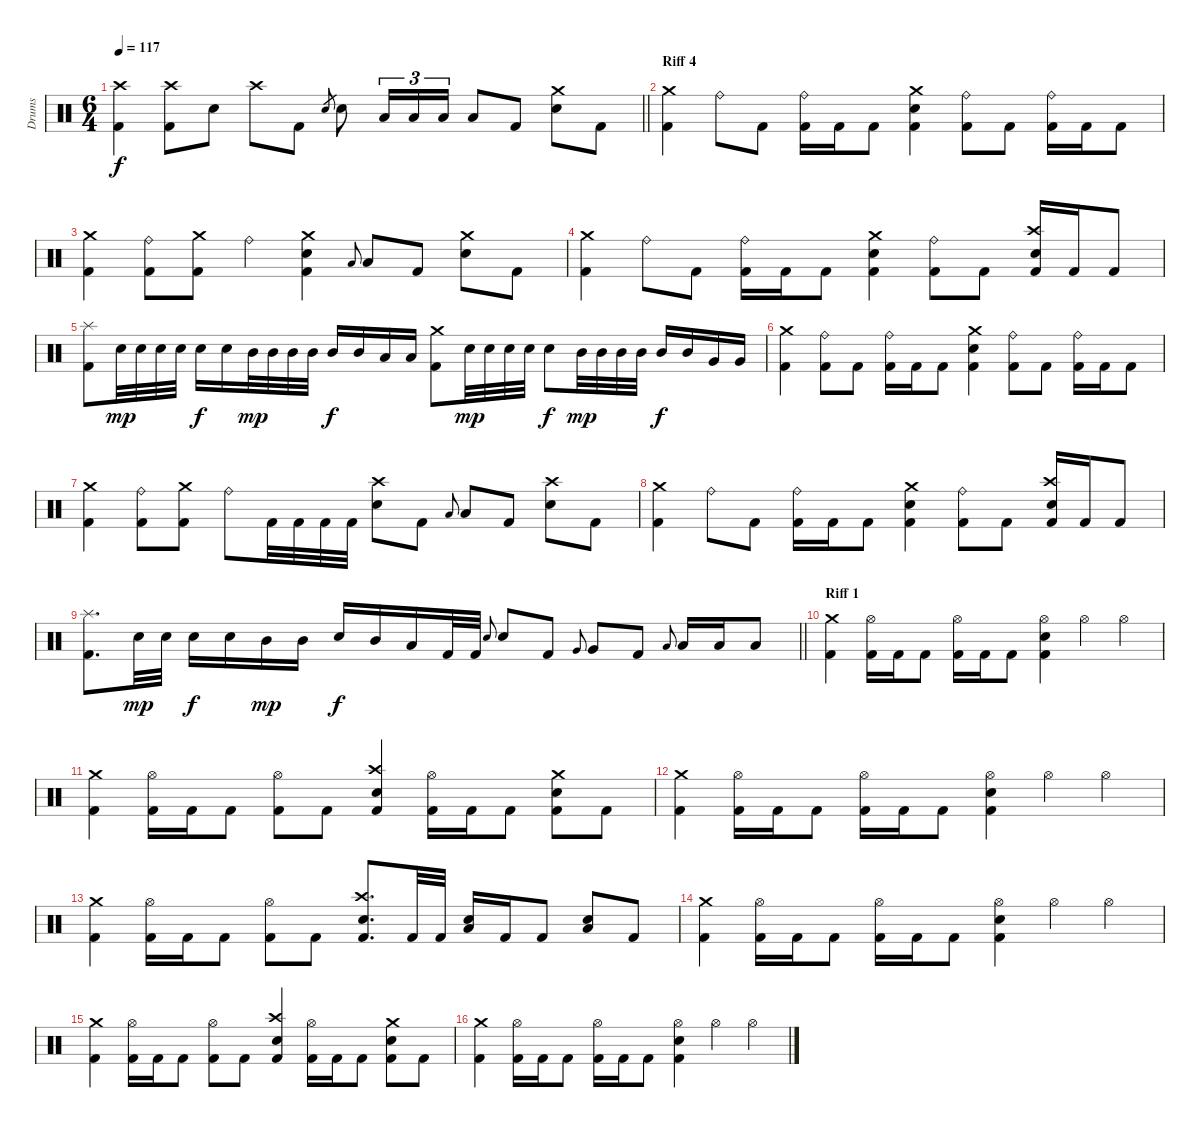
\track ("Drums" "Drums") {instrument percussion}
\staff {score}
\articulation defaults
\ts (6 4)
\tempo 117
\clef neutral
\barLineRight lightlight
\ks c
("Kick (hit) 2" "Crash high (hit)").4{dy f} ("Kick (hit) 2" "Crash high (hit)").8 "Electric Snare (hit)".8 "Crash high (hit)".8 "Kick (hit) 2".8 "Electric Snare (hit)".8{gr} "Electric Snare (hit)".8 "Low Tom (hit)".16{tu (3 2)} "Low Tom (hit)".16{tu (3 2)} "Low Floor Tom (hit)".16{tu (3 2)} "Low Floor Tom (hit)".8 "Kick (hit) 2".8 ("Crash medium (hit)" "Electric Snare (hit)").8 "Kick (hit) 2".8 |
\section ("" "Riff 4")
("Crash medium (hit)" "Kick (hit) 2").4 "Ride (bell)".8 "Kick (hit) 2".8 ("Kick (hit) 2" "Ride (bell)").16 "Kick (hit) 2".16 "Kick (hit) 2".8 ("Electric Snare (hit)" "Crash medium (hit)" "Kick (hit) 2").4 ("Ride (bell)" "Kick (hit) 2").8 "Kick (hit) 2".8 ("Ride (bell)" "Kick (hit) 2").16 "Kick (hit) 2".16 "Kick (hit) 2".8 |
("Kick (hit) 2" "Crash medium (hit)").4 ("Ride (bell)" "Kick (hit) 2").8 ("Crash medium (hit)" "Kick (hit) 2").8 "Ride (bell)".4 ("Kick (hit) 2" "Electric Snare (hit)" "Crash medium (hit)").4 "Low Tom (hit)".8{gr onbeat} "Low Tom (hit)".8 "Kick (hit) 2".8 ("Crash medium (hit)" "Electric Snare (hit)").8 "Kick (hit) 2".8 |
("Crash medium (hit)" "Kick (hit) 2").4 "Ride (bell)".8 "Kick (hit) 2".8 ("Kick (hit) 2" "Ride (bell)").16 "Kick (hit) 2".16 "Kick (hit) 2".8 ("Electric Snare (hit)" "Crash medium (hit)" "Kick (hit) 2").4 ("Ride (bell)" "Kick (hit) 2").8 "Kick (hit) 2".8 ("Crash high (hit)" "Electric Snare (hit)" "Kick (hit) 2").16 "Kick (hit) 2".16 "Kick (hit) 2".8 |
("Splash (hit)" "Kick (hit) 2").8 "Electric Snare (hit)".32{dy mp} "Electric Snare (hit)".32 "Electric Snare (hit)".32 "Electric Snare (hit)".32 "Electric Snare (hit)".16{dy f} "Electric Snare (hit)".16 "Mid Tom (hit)".32{dy mp} "Mid Tom (hit)".32 "Mid Tom (hit)".32 "Mid Tom (hit)".32 "Mid Tom (hit)".16{dy f} "Mid Tom (hit)".16 "Low Tom (hit)".16 "Low Tom (hit)".16 ("Crash medium (hit)" "Kick (hit) 2").8 "Electric Snare (hit)".32{dy mp} "Electric Snare (hit)".32 "Electric Snare (hit)".32 "Electric Snare (hit)".32 "Electric Snare (hit)".8{dy f} "Mid Tom (hit)".32{dy mp} "Mid Tom (hit)".32 "Mid Tom (hit)".32 "Mid Tom (hit)".32 "Mid Tom (hit)".16{dy f} "Mid Tom (hit)".16 "Very Low Tom (hit)".16 "Very Low Tom (hit)".16 |
("Crash medium (hit)" "Kick (hit) 2").4 ("Ride (bell)" "Kick (hit) 2").8 "Kick (hit) 2".8 ("Kick (hit) 2" "Ride (bell)").16 "Kick (hit) 2".16 "Kick (hit) 2".8 ("Electric Snare (hit)" "Crash medium (hit)" "Kick (hit) 2").4 ("Ride (bell)" "Kick (hit) 2").8 "Kick (hit) 2".8 ("Ride (bell)" "Kick (hit) 2").16 "Kick (hit) 2".16 "Kick (hit) 2".8 |
("Kick (hit) 2" "Crash medium (hit)").4 ("Ride (bell)" "Kick (hit) 2").8 ("Crash medium (hit)" "Kick (hit) 2").8 "Ride (bell)".8 "Kick (hit) 2".32 "Kick (hit) 2".32 "Kick (hit) 2".32 "Kick (hit) 2".32 ("Electric Snare (hit)" "Crash high (hit)").8 "Kick (hit) 2".8 "Low Tom (hit)".8{gr onbeat} "Low Tom (hit)".8 "Kick (hit) 2".8 ("Crash high (hit)" "Electric Snare (hit)").8 "Kick (hit) 2".8 |
("Crash medium (hit)" "Kick (hit) 2").4 "Ride (bell)".8 "Kick (hit) 2".8 ("Kick (hit) 2" "Ride (bell)").16 "Kick (hit) 2".16 "Kick (hit) 2".8 ("Electric Snare (hit)" "Crash medium (hit)" "Kick (hit) 2").4 ("Ride (bell)" "Kick (hit) 2").8 "Kick (hit) 2".8 ("Crash high (hit)" "Electric Snare (hit)" "Kick (hit) 2").16 "Kick (hit) 2".16 "Kick (hit) 2".8 |
\barLineRight lightlight
("Splash (hit)" "Kick (hit) 2").8{d} "Electric Snare (hit)".32{dy mp} "Electric Snare (hit)".32 "Electric Snare (hit)".16{dy f} "Electric Snare (hit)".16 "Mid Tom (hit)".16{dy mp} "Mid Tom (hit)".16 "Electric Snare (hit)".16{dy f} "Mid Tom (hit)".16 "Low Floor Tom (hit)".16 "Kick (hit) 2".32 "Kick (hit) 2".32 "Electric Snare (hit)".8{gr onbeat} "Electric Snare (hit)".8 "Kick (hit) 2".8 "Very Low Tom (hit)".8{gr onbeat} "Very Low Tom (hit)".8 "Kick (hit) 2".8 "Low Floor Tom (hit)".8{gr onbeat} "Low Floor Tom (hit)".16 "Low Floor Tom (hit)".16 "Low Floor Tom (hit)".8 |
\section ("" "Riff 1")
("Crash medium (hit)" "Kick (hit) 2").4 ("Hi-Hat (open)" "Kick (hit) 2").16 "Kick (hit) 2".16 "Kick (hit) 2".8 ("Hi-Hat (open)" "Kick (hit) 2").16 "Kick (hit) 2".16 "Kick (hit) 2".8 ("Electric Snare (hit)" "Hi-Hat (open)" "Kick (hit) 2").4 "Hi-Hat (open)".4 "Hi-Hat (open)".4 |
("Crash medium (hit)" "Kick (hit) 2").4 ("Hi-Hat (open)" "Kick (hit) 2").16 "Kick (hit) 2".16 "Kick (hit) 2".8 ("Kick (hit) 2" "Hi-Hat (open)").8 "Kick (hit) 2".8 ("Electric Snare (hit)" "Crash high (hit)" "Kick (hit) 2").4 ("Hi-Hat (open)" "Kick (hit) 2").16 "Kick (hit) 2".16 "Kick (hit) 2".8 ("Electric Snare (hit)" "Kick (hit) 2" "Crash medium (hit)").8 "Kick (hit) 2".8 |
("Crash medium (hit)" "Kick (hit) 2").4 ("Hi-Hat (open)" "Kick (hit) 2").16 "Kick (hit) 2".16 "Kick (hit) 2".8 ("Hi-Hat (open)" "Kick (hit) 2").16 "Kick (hit) 2".16 "Kick (hit) 2".8 ("Electric Snare (hit)" "Hi-Hat (open)" "Kick (hit) 2").4 "Hi-Hat (open)".4 "Hi-Hat (open)".4 |
("Crash medium (hit)" "Kick (hit) 2").4 ("Hi-Hat (open)" "Kick (hit) 2").16 "Kick (hit) 2".16 "Kick (hit) 2".8 ("Kick (hit) 2" "Hi-Hat (open)").8 "Kick (hit) 2".8 ("Electric Snare (hit)" "Crash high (hit)" "Kick (hit) 2").8{d} "Kick (hit) 2".32 "Kick (hit) 2".32 ("Electric Snare (hit)" "Low Floor Tom (hit)").16 "Kick (hit) 2".16 "Kick (hit) 2".8 ("Electric Snare (hit)" "Low Floor Tom (hit)").8 "Kick (hit) 2".8 |
("Crash medium (hit)" "Kick (hit) 2").4 ("Hi-Hat (open)" "Kick (hit) 2").16 "Kick (hit) 2".16 "Kick (hit) 2".8 ("Hi-Hat (open)" "Kick (hit) 2").16 "Kick (hit) 2".16 "Kick (hit) 2".8 ("Electric Snare (hit)" "Hi-Hat (open)" "Kick (hit) 2").4 "Hi-Hat (open)".4 "Hi-Hat (open)".4 |
("Crash medium (hit)" "Kick (hit) 2").4 ("Hi-Hat (open)" "Kick (hit) 2").16 "Kick (hit) 2".16 "Kick (hit) 2".8 ("Kick (hit) 2" "Hi-Hat (open)").8 "Kick (hit) 2".8 ("Electric Snare (hit)" "Crash high (hit)" "Kick (hit) 2").4 ("Hi-Hat (open)" "Kick (hit) 2").16 "Kick (hit) 2".16 "Kick (hit) 2".8 ("Electric Snare (hit)" "Kick (hit) 2" "Crash medium (hit)").8 "Kick (hit) 2".8 |
("Crash medium (hit)" "Kick (hit) 2").4 ("Hi-Hat (open)" "Kick (hit) 2").16 "Kick (hit) 2".16 "Kick (hit) 2".8 ("Hi-Hat (open)" "Kick (hit) 2").16 "Kick (hit) 2".16 "Kick (hit) 2".8 ("Electric Snare (hit)" "Hi-Hat (open)" "Kick (hit) 2").4 "Hi-Hat (open)".4 "Hi-Hat (open)".4
